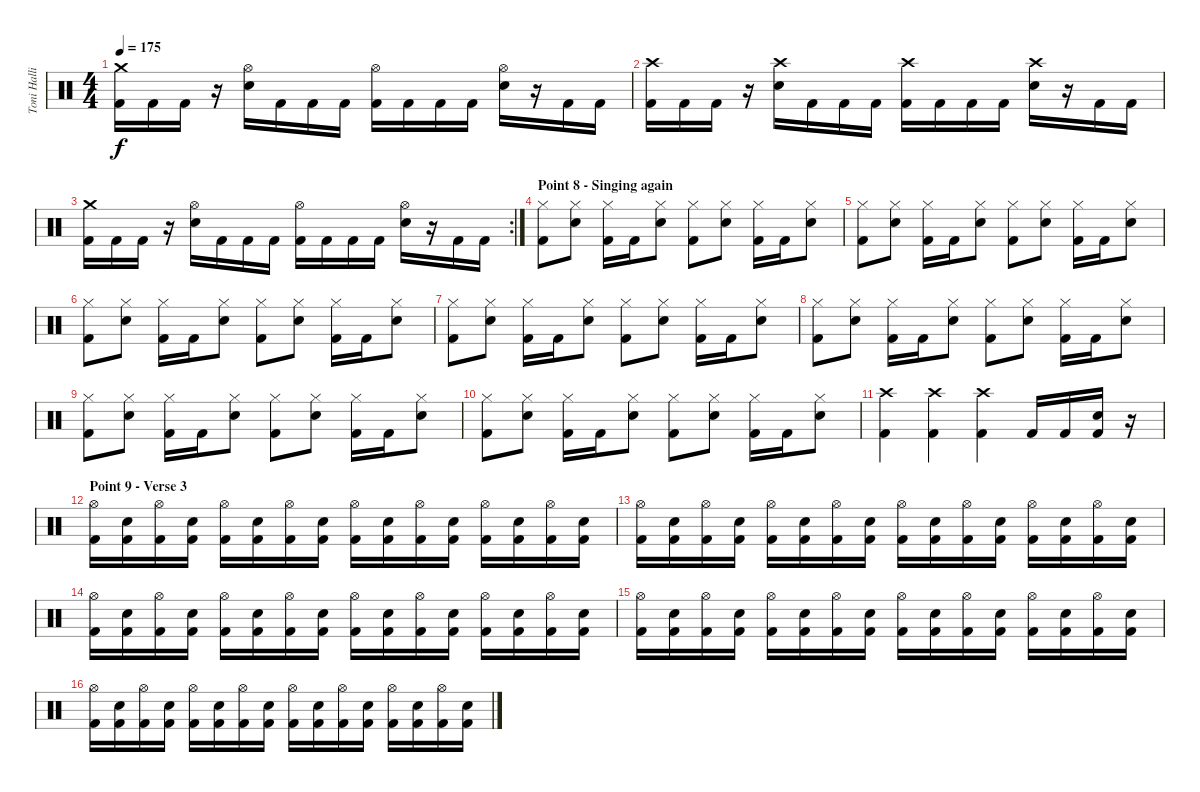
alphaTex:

\track ("Toni Hallio" "Toni Halli") {instrument percussion}
\staff {score}
\articulation defaults
\ts (4 4)
\tempo 175
\clef neutral
\ks c
("Crash medium (hit)" "Kick (hit) 2").16{dy f} "Kick (hit) 2".16 "Kick (hit) 2".16 r.16 ("Hi-Hat (open)" "Snare (hit) 2").16 "Kick (hit) 2".16 "Kick (hit) 2".16 "Kick (hit) 2".16 ("Hi-Hat (open)" "Kick (hit) 2").16 "Kick (hit) 2".16 "Kick (hit) 2".16 "Kick (hit) 2".16 ("Hi-Hat (open)" "Snare (hit) 2").16 r.16 "Kick (hit) 2".16 "Kick (hit) 2".16 |
("Crash high (hit)" "Kick (hit) 2").16 "Kick (hit) 2".16 "Kick (hit) 2".16 r.16 ("Crash high (hit)" "Snare (hit) 2").16 "Kick (hit) 2".16 "Kick (hit) 2".16 "Kick (hit) 2".16 ("Crash high (hit)" "Kick (hit) 2").16 "Kick (hit) 2".16 "Kick (hit) 2".16 "Kick (hit) 2".16 ("Crash high (hit)" "Snare (hit) 2").16 r.16 "Kick (hit) 2".16 "Kick (hit) 2".16 |
\rc 2
("Crash medium (hit)" "Kick (hit) 2").16 "Kick (hit) 2".16 "Kick (hit) 2".16 r.16 ("Hi-Hat (open)" "Snare (hit) 2").16 "Kick (hit) 2".16 "Kick (hit) 2".16 "Kick (hit) 2".16 ("Hi-Hat (open)" "Kick (hit) 2").16 "Kick (hit) 2".16 "Kick (hit) 2".16 "Kick (hit) 2".16 ("Hi-Hat (open)" "Snare (hit) 2").16 r.16 "Kick (hit) 2".16 "Kick (hit) 2".16 |
\section ("" "Point 8 - Singing again")
("Hi-Hat (closed)" "Kick (hit) 2").8 ("Hi-Hat (closed)" "Snare (hit) 2").8 ("Hi-Hat (closed)" "Kick (hit) 2").16 "Kick (hit) 2".16 ("Hi-Hat (closed)" "Snare (hit) 2").8 ("Hi-Hat (closed)" "Kick (hit) 2").8 ("Hi-Hat (closed)" "Snare (hit) 2").8 ("Hi-Hat (closed)" "Kick (hit) 2").16 "Kick (hit) 2".16 ("Hi-Hat (closed)" "Snare (hit) 2").8 |
("Hi-Hat (closed)" "Kick (hit) 2").8 ("Hi-Hat (closed)" "Snare (hit) 2").8 ("Hi-Hat (closed)" "Kick (hit) 2").16 "Kick (hit) 2".16 ("Hi-Hat (closed)" "Snare (hit) 2").8 ("Hi-Hat (closed)" "Kick (hit) 2").8 ("Hi-Hat (closed)" "Snare (hit) 2").8 ("Hi-Hat (closed)" "Kick (hit) 2").16 "Kick (hit) 2".16 ("Hi-Hat (closed)" "Snare (hit) 2").8 |
("Hi-Hat (closed)" "Kick (hit) 2").8 ("Hi-Hat (closed)" "Snare (hit) 2").8 ("Hi-Hat (closed)" "Kick (hit) 2").16 "Kick (hit) 2".16 ("Hi-Hat (closed)" "Snare (hit) 2").8 ("Hi-Hat (closed)" "Kick (hit) 2").8 ("Hi-Hat (closed)" "Snare (hit) 2").8 ("Hi-Hat (closed)" "Kick (hit) 2").16 "Kick (hit) 2".16 ("Hi-Hat (closed)" "Snare (hit) 2").8 |
("Hi-Hat (closed)" "Kick (hit) 2").8 ("Hi-Hat (closed)" "Snare (hit) 2").8 ("Hi-Hat (closed)" "Kick (hit) 2").16 "Kick (hit) 2".16 ("Hi-Hat (closed)" "Snare (hit) 2").8 ("Hi-Hat (closed)" "Kick (hit) 2").8 ("Hi-Hat (closed)" "Snare (hit) 2").8 ("Hi-Hat (closed)" "Kick (hit) 2").16 "Kick (hit) 2".16 ("Hi-Hat (closed)" "Snare (hit) 2").8 |
("Hi-Hat (closed)" "Kick (hit) 2").8 ("Hi-Hat (closed)" "Snare (hit) 2").8 ("Hi-Hat (closed)" "Kick (hit) 2").16 "Kick (hit) 2".16 ("Hi-Hat (closed)" "Snare (hit) 2").8 ("Hi-Hat (closed)" "Kick (hit) 2").8 ("Hi-Hat (closed)" "Snare (hit) 2").8 ("Hi-Hat (closed)" "Kick (hit) 2").16 "Kick (hit) 2".16 ("Hi-Hat (closed)" "Snare (hit) 2").8 |
("Hi-Hat (closed)" "Kick (hit) 2").8 ("Hi-Hat (closed)" "Snare (hit) 2").8 ("Hi-Hat (closed)" "Kick (hit) 2").16 "Kick (hit) 2".16 ("Hi-Hat (closed)" "Snare (hit) 2").8 ("Hi-Hat (closed)" "Kick (hit) 2").8 ("Hi-Hat (closed)" "Snare (hit) 2").8 ("Hi-Hat (closed)" "Kick (hit) 2").16 "Kick (hit) 2".16 ("Hi-Hat (closed)" "Snare (hit) 2").8 |
("Hi-Hat (closed)" "Kick (hit) 2").8 ("Hi-Hat (closed)" "Snare (hit) 2").8 ("Hi-Hat (closed)" "Kick (hit) 2").16 "Kick (hit) 2".16 ("Hi-Hat (closed)" "Snare (hit) 2").8 ("Hi-Hat (closed)" "Kick (hit) 2").8 ("Hi-Hat (closed)" "Snare (hit) 2").8 ("Hi-Hat (closed)" "Kick (hit) 2").16 "Kick (hit) 2".16 ("Hi-Hat (closed)" "Snare (hit) 2").8 |
("Crash high (hit)" "Kick (hit) 2").4 ("Crash high (hit)" "Kick (hit) 2").4 ("Crash high (hit)" "Kick (hit) 2").4 "Kick (hit) 2".16 "Kick (hit) 2".16 ("Snare (hit) 2" "Kick (hit) 2").16 r.16 |
\section ("" "Point 9 - Verse 3")
("Hi-Hat (open)" "Kick (hit) 2").16 ("Snare (hit) 2" "Kick (hit) 2").16 ("Hi-Hat (open)" "Kick (hit) 2").16 ("Snare (hit) 2" "Kick (hit) 2").16 ("Hi-Hat (open)" "Kick (hit) 2").16 ("Snare (hit) 2" "Kick (hit) 2").16 ("Hi-Hat (open)" "Kick (hit) 2").16 ("Snare (hit) 2" "Kick (hit) 2").16 ("Hi-Hat (open)" "Kick (hit) 2").16 ("Snare (hit) 2" "Kick (hit) 2").16 ("Hi-Hat (open)" "Kick (hit) 2").16 ("Snare (hit) 2" "Kick (hit) 2").16 ("Hi-Hat (open)" "Kick (hit) 2").16 ("Snare (hit) 2" "Kick (hit) 2").16 ("Hi-Hat (open)" "Kick (hit) 2").16 ("Snare (hit) 2" "Kick (hit) 2").16 |
("Hi-Hat (open)" "Kick (hit) 2").16 ("Snare (hit) 2" "Kick (hit) 2").16 ("Hi-Hat (open)" "Kick (hit) 2").16 ("Snare (hit) 2" "Kick (hit) 2").16 ("Hi-Hat (open)" "Kick (hit) 2").16 ("Snare (hit) 2" "Kick (hit) 2").16 ("Hi-Hat (open)" "Kick (hit) 2").16 ("Snare (hit) 2" "Kick (hit) 2").16 ("Hi-Hat (open)" "Kick (hit) 2").16 ("Snare (hit) 2" "Kick (hit) 2").16 ("Hi-Hat (open)" "Kick (hit) 2").16 ("Snare (hit) 2" "Kick (hit) 2").16 ("Hi-Hat (open)" "Kick (hit) 2").16 ("Snare (hit) 2" "Kick (hit) 2").16 ("Hi-Hat (open)" "Kick (hit) 2").16 ("Snare (hit) 2" "Kick (hit) 2").16 |
("Hi-Hat (open)" "Kick (hit) 2").16 ("Snare (hit) 2" "Kick (hit) 2").16 ("Hi-Hat (open)" "Kick (hit) 2").16 ("Snare (hit) 2" "Kick (hit) 2").16 ("Hi-Hat (open)" "Kick (hit) 2").16 ("Snare (hit) 2" "Kick (hit) 2").16 ("Hi-Hat (open)" "Kick (hit) 2").16 ("Snare (hit) 2" "Kick (hit) 2").16 ("Hi-Hat (open)" "Kick (hit) 2").16 ("Snare (hit) 2" "Kick (hit) 2").16 ("Hi-Hat (open)" "Kick (hit) 2").16 ("Snare (hit) 2" "Kick (hit) 2").16 ("Hi-Hat (open)" "Kick (hit) 2").16 ("Snare (hit) 2" "Kick (hit) 2").16 ("Hi-Hat (open)" "Kick (hit) 2").16 ("Snare (hit) 2" "Kick (hit) 2").16 |
("Hi-Hat (open)" "Kick (hit) 2").16 ("Snare (hit) 2" "Kick (hit) 2").16 ("Hi-Hat (open)" "Kick (hit) 2").16 ("Snare (hit) 2" "Kick (hit) 2").16 ("Hi-Hat (open)" "Kick (hit) 2").16 ("Snare (hit) 2" "Kick (hit) 2").16 ("Hi-Hat (open)" "Kick (hit) 2").16 ("Snare (hit) 2" "Kick (hit) 2").16 ("Hi-Hat (open)" "Kick (hit) 2").16 ("Snare (hit) 2" "Kick (hit) 2").16 ("Hi-Hat (open)" "Kick (hit) 2").16 ("Snare (hit) 2" "Kick (hit) 2").16 ("Hi-Hat (open)" "Kick (hit) 2").16 ("Snare (hit) 2" "Kick (hit) 2").16 ("Hi-Hat (open)" "Kick (hit) 2").16 ("Snare (hit) 2" "Kick (hit) 2").16 |
("Hi-Hat (open)" "Kick (hit) 2").16 ("Snare (hit) 2" "Kick (hit) 2").16 ("Hi-Hat (open)" "Kick (hit) 2").16 ("Snare (hit) 2" "Kick (hit) 2").16 ("Hi-Hat (open)" "Kick (hit) 2").16 ("Snare (hit) 2" "Kick (hit) 2").16 ("Hi-Hat (open)" "Kick (hit) 2").16 ("Snare (hit) 2" "Kick (hit) 2").16 ("Hi-Hat (open)" "Kick (hit) 2").16 ("Snare (hit) 2" "Kick (hit) 2").16 ("Hi-Hat (open)" "Kick (hit) 2").16 ("Snare (hit) 2" "Kick (hit) 2").16 ("Hi-Hat (open)" "Kick (hit) 2").16 ("Snare (hit) 2" "Kick (hit) 2").16 ("Hi-Hat (open)" "Kick (hit) 2").16 ("Snare (hit) 2" "Kick (hit) 2").16
